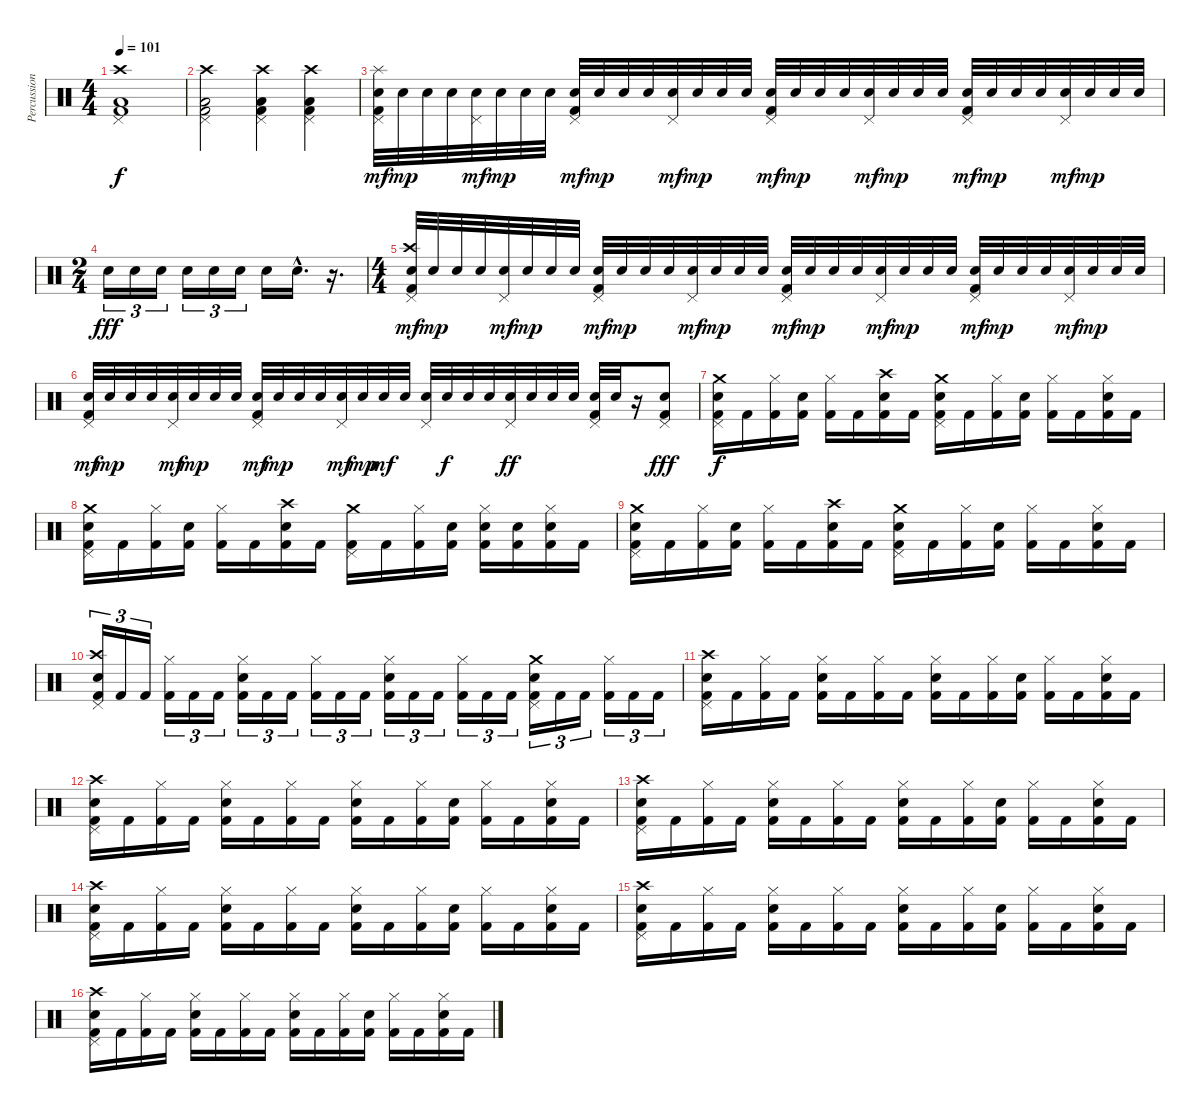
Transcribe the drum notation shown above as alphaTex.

\track ("Percussion" "Percussion") {instrument percussion}
\staff {score}
\articulation defaults
\ts (4 4)
\tempo 101
\clef neutral
\ks c
("Kick (hit) 2" "Low Floor Tom (hit)" "Pedal Hi-Hat (hit)" "Crash high (hit)").1{dy f} |
("Kick (hit) 2" "Low Floor Tom (hit)" "Pedal Hi-Hat (hit)" "Crash high (hit)").2 ("Kick (hit) 2" "Low Floor Tom (hit)" "Pedal Hi-Hat (hit)" "Crash high (hit)").4 ("Kick (hit) 2" "Low Floor Tom (hit)" "Pedal Hi-Hat (hit)" "Crash high (hit)").4 |
("Kick (hit) 2" "Snare (hit) 2" "Pedal Hi-Hat (hit)" "Splash (hit)").32{dy mf} "Snare (hit) 2".32{dy mp} "Snare (hit) 2".32 "Snare (hit) 2".32 ("Snare (hit) 2" "Pedal Hi-Hat (hit)").32{dy mf} "Snare (hit) 2".32{dy mp} "Snare (hit) 2".32 "Snare (hit) 2".32 ("Kick (hit) 2" "Snare (hit) 2" "Pedal Hi-Hat (hit)").32{dy mf} "Snare (hit) 2".32{dy mp} "Snare (hit) 2".32 "Snare (hit) 2".32 ("Snare (hit) 2" "Pedal Hi-Hat (hit)").32{dy mf} "Snare (hit) 2".32{dy mp} "Snare (hit) 2".32 "Snare (hit) 2".32 ("Kick (hit) 2" "Snare (hit) 2" "Pedal Hi-Hat (hit)").32{dy mf} "Snare (hit) 2".32{dy mp} "Snare (hit) 2".32 "Snare (hit) 2".32 ("Snare (hit) 2" "Pedal Hi-Hat (hit)").32{dy mf} "Snare (hit) 2".32{dy mp} "Snare (hit) 2".32 "Snare (hit) 2".32 ("Kick (hit) 2" "Snare (hit) 2" "Pedal Hi-Hat (hit)").32{dy mf} "Snare (hit) 2".32{dy mp} "Snare (hit) 2".32 "Snare (hit) 2".32 ("Snare (hit) 2" "Pedal Hi-Hat (hit)").32{dy mf} "Snare (hit) 2".32{dy mp} "Snare (hit) 2".32 "Snare (hit) 2".32 |
\ts (2 4)
"Snare (hit) 2".16{tu (3 2) dy fff} "Snare (hit) 2".16{tu (3 2)} "Snare (hit) 2".16{tu (3 2)} "Snare (hit) 2".16{tu (3 2)} "Snare (hit) 2".16{tu (3 2)} "Snare (hit) 2".16{tu (3 2)} "Snare (hit) 2".16 "Snare (hit) 2"{hac}.16{d} r.16{d} |
\ts (4 4)
("Kick (hit) 2" "Snare (hit) 2" "Pedal Hi-Hat (hit)" "Crash high (hit)").32{dy mf} "Snare (hit) 2".32{dy mp} "Snare (hit) 2".32 "Snare (hit) 2".32 ("Snare (hit) 2" "Pedal Hi-Hat (hit)").32{dy mf} "Snare (hit) 2".32{dy mp} "Snare (hit) 2".32 "Snare (hit) 2".32 ("Kick (hit) 2" "Snare (hit) 2" "Pedal Hi-Hat (hit)").32{dy mf} "Snare (hit) 2".32{dy mp} "Snare (hit) 2".32 "Snare (hit) 2".32 ("Snare (hit) 2" "Pedal Hi-Hat (hit)").32{dy mf} "Snare (hit) 2".32{dy mp} "Snare (hit) 2".32 "Snare (hit) 2".32 ("Kick (hit) 2" "Snare (hit) 2" "Pedal Hi-Hat (hit)").32{dy mf} "Snare (hit) 2".32{dy mp} "Snare (hit) 2".32 "Snare (hit) 2".32 ("Snare (hit) 2" "Pedal Hi-Hat (hit)").32{dy mf} "Snare (hit) 2".32{dy mp} "Snare (hit) 2".32 "Snare (hit) 2".32 ("Kick (hit) 2" "Snare (hit) 2" "Pedal Hi-Hat (hit)").32{dy mf} "Snare (hit) 2".32{dy mp} "Snare (hit) 2".32 "Snare (hit) 2".32 ("Snare (hit) 2" "Pedal Hi-Hat (hit)").32{dy mf} "Snare (hit) 2".32{dy mp} "Snare (hit) 2".32 "Snare (hit) 2".32 |
("Kick (hit) 2" "Snare (hit) 2" "Pedal Hi-Hat (hit)").32{dy mf} "Snare (hit) 2".32{dy mp} "Snare (hit) 2".32 "Snare (hit) 2".32 ("Snare (hit) 2" "Pedal Hi-Hat (hit)").32{dy mf} "Snare (hit) 2".32{dy mp} "Snare (hit) 2".32 "Snare (hit) 2".32 ("Kick (hit) 2" "Snare (hit) 2" "Pedal Hi-Hat (hit)").32{dy mf} "Snare (hit) 2".32{dy mp} "Snare (hit) 2".32 "Snare (hit) 2".32 ("Snare (hit) 2" "Pedal Hi-Hat (hit)").32{dy mf} "Snare (hit) 2".32{dy mp} "Snare (hit) 2".32{dy mf} "Snare (hit) 2".32 ("Snare (hit) 2" "Pedal Hi-Hat (hit)").32 "Snare (hit) 2".32{dy f} "Snare (hit) 2".32 "Snare (hit) 2".32 ("Snare (hit) 2" "Pedal Hi-Hat (hit)").32{dy ff} "Snare (hit) 2".32 "Snare (hit) 2".32 "Snare (hit) 2".32 ("Kick (hit) 2" "Snare (hit) 2" "Pedal Hi-Hat (hit)").32 "Snare (hit) 2".32 r.16 ("Kick (hit) 2" "Snare (hit) 2" "Pedal Hi-Hat (hit)").8{dy fff} |
("Kick (hit) 2" "Snare (hit) 2" "Pedal Hi-Hat (hit)" "Crash medium (hit)").16{dy f} "Kick (hit) 2".16 ("Kick (hit) 2" "Hi-Hat (closed)").16 ("Kick (hit) 2" "Snare (hit) 2").16 ("Kick (hit) 2" "Hi-Hat (closed)").16 "Kick (hit) 2".16 ("Kick (hit) 2" "Snare (hit) 2" "Crash high (hit)").16 "Kick (hit) 2".16 ("Kick (hit) 2" "Snare (hit) 2" "Pedal Hi-Hat (hit)" "Crash medium (hit)").16 "Kick (hit) 2".16 ("Kick (hit) 2" "Hi-Hat (closed)").16 ("Kick (hit) 2" "Snare (hit) 2").16 ("Kick (hit) 2" "Hi-Hat (closed)").16 "Kick (hit) 2".16 ("Kick (hit) 2" "Snare (hit) 2" "Hi-Hat (closed)").16 "Kick (hit) 2".16 |
("Kick (hit) 2" "Snare (hit) 2" "Pedal Hi-Hat (hit)" "Crash medium (hit)").16 "Kick (hit) 2".16 ("Kick (hit) 2" "Hi-Hat (closed)").16 ("Kick (hit) 2" "Snare (hit) 2").16 ("Kick (hit) 2" "Hi-Hat (closed)").16 "Kick (hit) 2".16 ("Kick (hit) 2" "Snare (hit) 2" "Crash high (hit)").16 "Kick (hit) 2".16 ("Kick (hit) 2" "Pedal Hi-Hat (hit)" "Crash medium (hit)").16 "Kick (hit) 2".16 ("Kick (hit) 2" "Hi-Hat (closed)").16 ("Kick (hit) 2" "Snare (hit) 2").16 ("Kick (hit) 2" "Snare (hit) 2" "Hi-Hat (closed)").16 ("Kick (hit) 2" "Snare (hit) 2").16 ("Kick (hit) 2" "Snare (hit) 2" "Hi-Hat (closed)").16 "Kick (hit) 2".16 |
("Kick (hit) 2" "Snare (hit) 2" "Pedal Hi-Hat (hit)" "Crash medium (hit)").16 "Kick (hit) 2".16 ("Kick (hit) 2" "Hi-Hat (closed)").16 ("Kick (hit) 2" "Snare (hit) 2").16 ("Kick (hit) 2" "Hi-Hat (closed)").16 "Kick (hit) 2".16 ("Kick (hit) 2" "Snare (hit) 2" "Crash high (hit)").16 "Kick (hit) 2".16 ("Kick (hit) 2" "Snare (hit) 2" "Pedal Hi-Hat (hit)" "Crash medium (hit)").16 "Kick (hit) 2".16 ("Kick (hit) 2" "Hi-Hat (closed)").16 ("Kick (hit) 2" "Snare (hit) 2").16 ("Kick (hit) 2" "Hi-Hat (closed)").16 "Kick (hit) 2".16 ("Kick (hit) 2" "Snare (hit) 2" "Hi-Hat (closed)").16 "Kick (hit) 2".16 |
("Kick (hit) 2" "Snare (hit) 2" "Pedal Hi-Hat (hit)" "Crash high (hit)").16{tu (3 2)} "Kick (hit) 2".16{tu (3 2)} "Kick (hit) 2".16{tu (3 2)} ("Kick (hit) 2" "Hi-Hat (closed)").16{tu (3 2)} "Kick (hit) 2".16{tu (3 2)} "Kick (hit) 2".16{tu (3 2)} ("Kick (hit) 2" "Snare (hit) 2" "Hi-Hat (closed)").16{tu (3 2)} "Kick (hit) 2".16{tu (3 2)} "Kick (hit) 2".16{tu (3 2)} ("Kick (hit) 2" "Hi-Hat (closed)").16{tu (3 2)} "Kick (hit) 2".16{tu (3 2)} "Kick (hit) 2".16{tu (3 2)} ("Kick (hit) 2" "Snare (hit) 2" "Hi-Hat (closed)").16{tu (3 2)} "Kick (hit) 2".16{tu (3 2)} "Kick (hit) 2".16{tu (3 2)} ("Kick (hit) 2" "Hi-Hat (closed)").16{tu (3 2)} "Kick (hit) 2".16{tu (3 2)} "Kick (hit) 2".16{tu (3 2)} ("Kick (hit) 2" "Snare (hit) 2" "Pedal Hi-Hat (hit)" "Crash medium (hit)").16{tu (3 2)} "Kick (hit) 2".16{tu (3 2)} "Kick (hit) 2".16{tu (3 2)} ("Kick (hit) 2" "Hi-Hat (closed)").16{tu (3 2)} "Kick (hit) 2".16{tu (3 2)} "Kick (hit) 2".16{tu (3 2)} |
("Kick (hit) 2" "Snare (hit) 2" "Pedal Hi-Hat (hit)" "Crash high (hit)").16 "Kick (hit) 2".16 ("Kick (hit) 2" "Hi-Hat (closed)").16 "Kick (hit) 2".16 ("Kick (hit) 2" "Snare (hit) 2" "Hi-Hat (closed)").16 "Kick (hit) 2".16 ("Kick (hit) 2" "Hi-Hat (closed)").16 "Kick (hit) 2".16 ("Kick (hit) 2" "Snare (hit) 2" "Hi-Hat (closed)").16 "Kick (hit) 2".16 ("Kick (hit) 2" "Hi-Hat (closed)").16 ("Kick (hit) 2" "Snare (hit) 2").16 ("Kick (hit) 2" "Hi-Hat (closed)").16 "Kick (hit) 2".16 ("Kick (hit) 2" "Snare (hit) 2" "Hi-Hat (closed)").16 "Kick (hit) 2".16 |
("Kick (hit) 2" "Snare (hit) 2" "Pedal Hi-Hat (hit)" "Crash high (hit)").16 "Kick (hit) 2".16 ("Kick (hit) 2" "Hi-Hat (closed)").16 "Kick (hit) 2".16 ("Kick (hit) 2" "Snare (hit) 2" "Hi-Hat (closed)").16 "Kick (hit) 2".16 ("Kick (hit) 2" "Hi-Hat (closed)").16 "Kick (hit) 2".16 ("Kick (hit) 2" "Snare (hit) 2" "Hi-Hat (closed)").16 "Kick (hit) 2".16 ("Kick (hit) 2" "Hi-Hat (closed)").16 ("Kick (hit) 2" "Snare (hit) 2").16 ("Kick (hit) 2" "Hi-Hat (closed)").16 "Kick (hit) 2".16 ("Kick (hit) 2" "Snare (hit) 2" "Hi-Hat (closed)").16 "Kick (hit) 2".16 |
("Kick (hit) 2" "Snare (hit) 2" "Pedal Hi-Hat (hit)" "Crash high (hit)").16 "Kick (hit) 2".16 ("Kick (hit) 2" "Hi-Hat (closed)").16 "Kick (hit) 2".16 ("Kick (hit) 2" "Snare (hit) 2" "Hi-Hat (closed)").16 "Kick (hit) 2".16 ("Kick (hit) 2" "Hi-Hat (closed)").16 "Kick (hit) 2".16 ("Kick (hit) 2" "Snare (hit) 2" "Hi-Hat (closed)").16 "Kick (hit) 2".16 ("Kick (hit) 2" "Hi-Hat (closed)").16 ("Kick (hit) 2" "Snare (hit) 2").16 ("Kick (hit) 2" "Hi-Hat (closed)").16 "Kick (hit) 2".16 ("Kick (hit) 2" "Snare (hit) 2" "Hi-Hat (closed)").16 "Kick (hit) 2".16 |
("Kick (hit) 2" "Snare (hit) 2" "Pedal Hi-Hat (hit)" "Crash high (hit)").16 "Kick (hit) 2".16 ("Kick (hit) 2" "Hi-Hat (closed)").16 "Kick (hit) 2".16 ("Kick (hit) 2" "Snare (hit) 2" "Hi-Hat (closed)").16 "Kick (hit) 2".16 ("Kick (hit) 2" "Hi-Hat (closed)").16 "Kick (hit) 2".16 ("Kick (hit) 2" "Snare (hit) 2" "Hi-Hat (closed)").16 "Kick (hit) 2".16 ("Kick (hit) 2" "Hi-Hat (closed)").16 ("Kick (hit) 2" "Snare (hit) 2").16 ("Kick (hit) 2" "Hi-Hat (closed)").16 "Kick (hit) 2".16 ("Kick (hit) 2" "Snare (hit) 2" "Hi-Hat (closed)").16 "Kick (hit) 2".16 |
("Kick (hit) 2" "Snare (hit) 2" "Pedal Hi-Hat (hit)" "Crash high (hit)").16 "Kick (hit) 2".16 ("Kick (hit) 2" "Hi-Hat (closed)").16 "Kick (hit) 2".16 ("Kick (hit) 2" "Snare (hit) 2" "Hi-Hat (closed)").16 "Kick (hit) 2".16 ("Kick (hit) 2" "Hi-Hat (closed)").16 "Kick (hit) 2".16 ("Kick (hit) 2" "Snare (hit) 2" "Hi-Hat (closed)").16 "Kick (hit) 2".16 ("Kick (hit) 2" "Hi-Hat (closed)").16 ("Kick (hit) 2" "Snare (hit) 2").16 ("Kick (hit) 2" "Hi-Hat (closed)").16 "Kick (hit) 2".16 ("Kick (hit) 2" "Snare (hit) 2" "Hi-Hat (closed)").16 "Kick (hit) 2".16 |
("Kick (hit) 2" "Snare (hit) 2" "Pedal Hi-Hat (hit)" "Crash high (hit)").16 "Kick (hit) 2".16 ("Kick (hit) 2" "Hi-Hat (closed)").16 "Kick (hit) 2".16 ("Kick (hit) 2" "Snare (hit) 2" "Hi-Hat (closed)").16 "Kick (hit) 2".16 ("Kick (hit) 2" "Hi-Hat (closed)").16 "Kick (hit) 2".16 ("Kick (hit) 2" "Snare (hit) 2" "Hi-Hat (closed)").16 "Kick (hit) 2".16 ("Kick (hit) 2" "Hi-Hat (closed)").16 ("Kick (hit) 2" "Snare (hit) 2").16 ("Kick (hit) 2" "Hi-Hat (closed)").16 "Kick (hit) 2".16 ("Kick (hit) 2" "Snare (hit) 2" "Hi-Hat (closed)").16 "Kick (hit) 2".16
